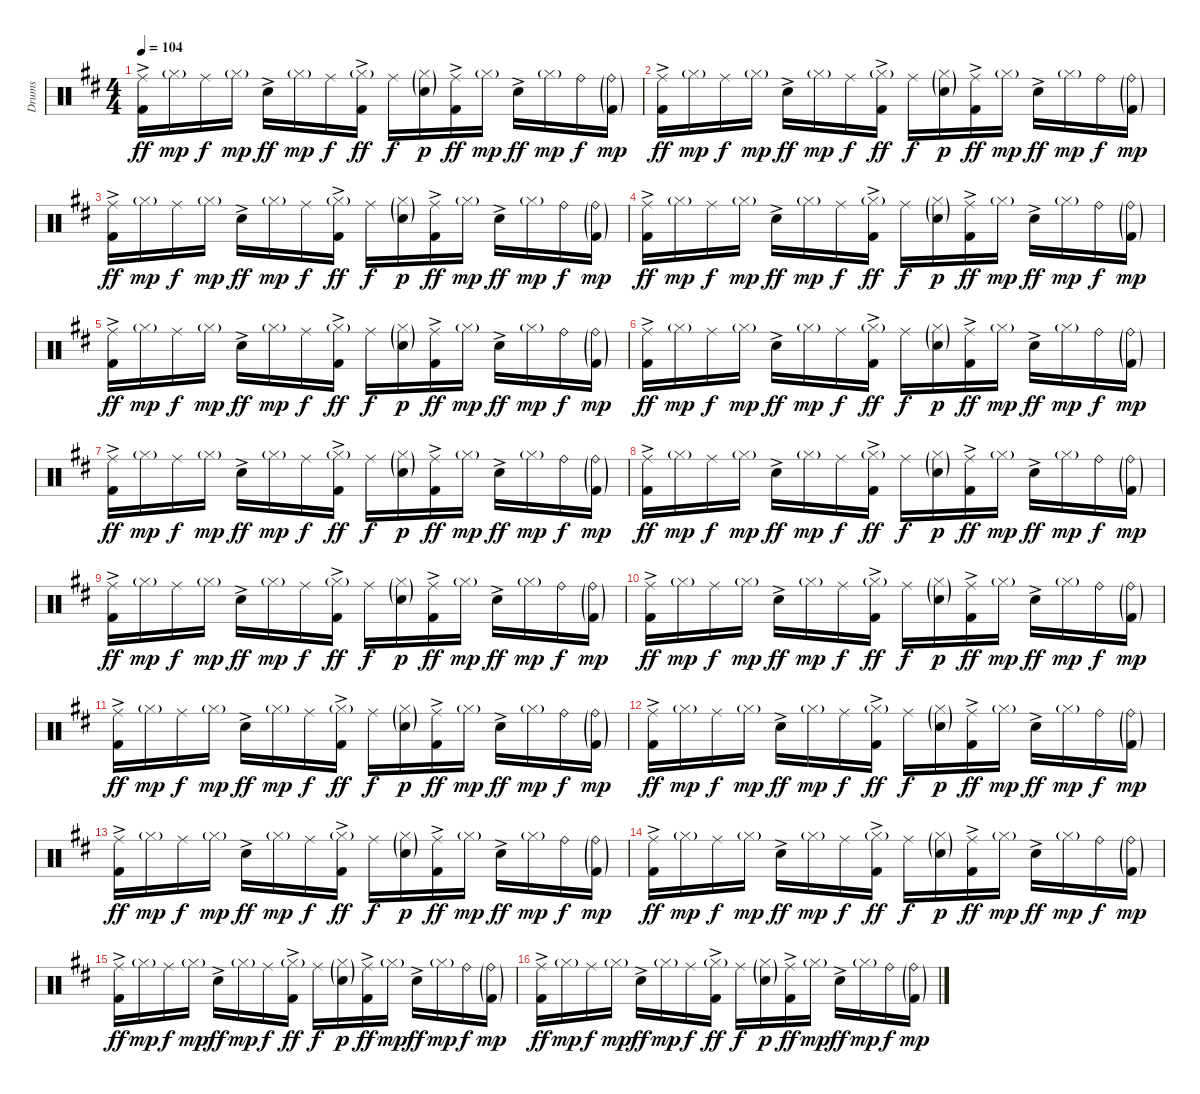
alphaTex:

\track ("Drums" "Drums") {instrument percussion}
\staff {score}
\articulation defaults
\ts (4 4)
\tempo 104
\clef neutral
\ks d
("Ride (middle)" "Kick (hit) 2"{ac}).16{dy ff} "Hi-Hat (closed)"{g}.16{dy mp} "Ride (middle)".16{dy f} "Hi-Hat (closed)"{g}.16{dy mp} "Snare (hit) 2"{ac}.16{dy ff} "Hi-Hat (closed)"{g}.16{dy mp} "Ride (middle)".16{dy f} ("Hi-Hat (closed)"{g} "Kick (hit) 2"{ac}).16{dy ff} "Ride (middle)".16{dy f} ("Hi-Hat (closed)"{g} "Snare (hit) 2"{g}).16{dy p} ("Ride (middle)" "Kick (hit) 2"{ac}).16{dy ff} "Hi-Hat (closed)"{g}.16{dy mp} "Snare (hit) 2"{ac}.16{dy ff} "Hi-Hat (closed)"{g}.16{dy mp} "Ride (bell)".16{dy f} ("Ride (bell)"{g} "Kick (hit) 2"{g}).16{dy mp} |
("Ride (middle)" "Kick (hit) 2"{ac}).16{dy ff} "Hi-Hat (closed)"{g}.16{dy mp} "Ride (middle)".16{dy f} "Hi-Hat (closed)"{g}.16{dy mp} "Snare (hit) 2"{ac}.16{dy ff} "Hi-Hat (closed)"{g}.16{dy mp} "Ride (middle)".16{dy f} ("Hi-Hat (closed)"{g} "Kick (hit) 2"{ac}).16{dy ff} "Ride (middle)".16{dy f} ("Hi-Hat (closed)"{g} "Snare (hit) 2"{g}).16{dy p} ("Ride (middle)" "Kick (hit) 2"{ac}).16{dy ff} "Hi-Hat (closed)"{g}.16{dy mp} "Snare (hit) 2"{ac}.16{dy ff} "Hi-Hat (closed)"{g}.16{dy mp} "Ride (bell)".16{dy f} ("Ride (bell)"{g} "Kick (hit) 2"{g}).16{dy mp} |
("Ride (middle)" "Kick (hit) 2"{ac}).16{dy ff} "Hi-Hat (closed)"{g}.16{dy mp} "Ride (middle)".16{dy f} "Hi-Hat (closed)"{g}.16{dy mp} "Snare (hit) 2"{ac}.16{dy ff} "Hi-Hat (closed)"{g}.16{dy mp} "Ride (middle)".16{dy f} ("Hi-Hat (closed)"{g} "Kick (hit) 2"{ac}).16{dy ff} "Ride (middle)".16{dy f} ("Hi-Hat (closed)"{g} "Snare (hit) 2"{g}).16{dy p} ("Ride (middle)" "Kick (hit) 2"{ac}).16{dy ff} "Hi-Hat (closed)"{g}.16{dy mp} "Snare (hit) 2"{ac}.16{dy ff} "Hi-Hat (closed)"{g}.16{dy mp} "Ride (bell)".16{dy f} ("Ride (bell)"{g} "Kick (hit) 2"{g}).16{dy mp} |
("Ride (middle)" "Kick (hit) 2"{ac}).16{dy ff} "Hi-Hat (closed)"{g}.16{dy mp} "Ride (middle)".16{dy f} "Hi-Hat (closed)"{g}.16{dy mp} "Snare (hit) 2"{ac}.16{dy ff} "Hi-Hat (closed)"{g}.16{dy mp} "Ride (middle)".16{dy f} ("Hi-Hat (closed)"{g} "Kick (hit) 2"{ac}).16{dy ff} "Ride (middle)".16{dy f} ("Hi-Hat (closed)"{g} "Snare (hit) 2"{g}).16{dy p} ("Ride (middle)" "Kick (hit) 2"{ac}).16{dy ff} "Hi-Hat (closed)"{g}.16{dy mp} "Snare (hit) 2"{ac}.16{dy ff} "Hi-Hat (closed)"{g}.16{dy mp} "Ride (bell)".16{dy f} ("Ride (bell)"{g} "Kick (hit) 2"{g}).16{dy mp} |
("Ride (middle)" "Kick (hit) 2"{ac}).16{dy ff} "Hi-Hat (closed)"{g}.16{dy mp} "Ride (middle)".16{dy f} "Hi-Hat (closed)"{g}.16{dy mp} "Snare (hit) 2"{ac}.16{dy ff} "Hi-Hat (closed)"{g}.16{dy mp} "Ride (middle)".16{dy f} ("Hi-Hat (closed)"{g} "Kick (hit) 2"{ac}).16{dy ff} "Ride (middle)".16{dy f} ("Hi-Hat (closed)"{g} "Snare (hit) 2"{g}).16{dy p} ("Ride (middle)" "Kick (hit) 2"{ac}).16{dy ff} "Hi-Hat (closed)"{g}.16{dy mp} "Snare (hit) 2"{ac}.16{dy ff} "Hi-Hat (closed)"{g}.16{dy mp} "Ride (bell)".16{dy f} ("Ride (bell)"{g} "Kick (hit) 2"{g}).16{dy mp} |
("Ride (middle)" "Kick (hit) 2"{ac}).16{dy ff} "Hi-Hat (closed)"{g}.16{dy mp} "Ride (middle)".16{dy f} "Hi-Hat (closed)"{g}.16{dy mp} "Snare (hit) 2"{ac}.16{dy ff} "Hi-Hat (closed)"{g}.16{dy mp} "Ride (middle)".16{dy f} ("Hi-Hat (closed)"{g} "Kick (hit) 2"{ac}).16{dy ff} "Ride (middle)".16{dy f} ("Hi-Hat (closed)"{g} "Snare (hit) 2"{g}).16{dy p} ("Ride (middle)" "Kick (hit) 2"{ac}).16{dy ff} "Hi-Hat (closed)"{g}.16{dy mp} "Snare (hit) 2"{ac}.16{dy ff} "Hi-Hat (closed)"{g}.16{dy mp} "Ride (bell)".16{dy f} ("Ride (bell)"{g} "Kick (hit) 2"{g}).16{dy mp} |
("Ride (middle)" "Kick (hit) 2"{ac}).16{dy ff} "Hi-Hat (closed)"{g}.16{dy mp} "Ride (middle)".16{dy f} "Hi-Hat (closed)"{g}.16{dy mp} "Snare (hit) 2"{ac}.16{dy ff} "Hi-Hat (closed)"{g}.16{dy mp} "Ride (middle)".16{dy f} ("Hi-Hat (closed)"{g} "Kick (hit) 2"{ac}).16{dy ff} "Ride (middle)".16{dy f} ("Hi-Hat (closed)"{g} "Snare (hit) 2"{g}).16{dy p} ("Ride (middle)" "Kick (hit) 2"{ac}).16{dy ff} "Hi-Hat (closed)"{g}.16{dy mp} "Snare (hit) 2"{ac}.16{dy ff} "Hi-Hat (closed)"{g}.16{dy mp} "Ride (bell)".16{dy f} ("Ride (bell)"{g} "Kick (hit) 2"{g}).16{dy mp} |
("Ride (middle)" "Kick (hit) 2"{ac}).16{dy ff} "Hi-Hat (closed)"{g}.16{dy mp} "Ride (middle)".16{dy f} "Hi-Hat (closed)"{g}.16{dy mp} "Snare (hit) 2"{ac}.16{dy ff} "Hi-Hat (closed)"{g}.16{dy mp} "Ride (middle)".16{dy f} ("Hi-Hat (closed)"{g} "Kick (hit) 2"{ac}).16{dy ff} "Ride (middle)".16{dy f} ("Hi-Hat (closed)"{g} "Snare (hit) 2"{g}).16{dy p} ("Ride (middle)" "Kick (hit) 2"{ac}).16{dy ff} "Hi-Hat (closed)"{g}.16{dy mp} "Snare (hit) 2"{ac}.16{dy ff} "Hi-Hat (closed)"{g}.16{dy mp} "Ride (bell)".16{dy f} ("Ride (bell)"{g} "Kick (hit) 2"{g}).16{dy mp} |
("Ride (middle)" "Kick (hit) 2"{ac}).16{dy ff} "Hi-Hat (closed)"{g}.16{dy mp} "Ride (middle)".16{dy f} "Hi-Hat (closed)"{g}.16{dy mp} "Snare (hit) 2"{ac}.16{dy ff} "Hi-Hat (closed)"{g}.16{dy mp} "Ride (middle)".16{dy f} ("Hi-Hat (closed)"{g} "Kick (hit) 2"{ac}).16{dy ff} "Ride (middle)".16{dy f} ("Hi-Hat (closed)"{g} "Snare (hit) 2"{g}).16{dy p} ("Ride (middle)" "Kick (hit) 2"{ac}).16{dy ff} "Hi-Hat (closed)"{g}.16{dy mp} "Snare (hit) 2"{ac}.16{dy ff} "Hi-Hat (closed)"{g}.16{dy mp} "Ride (bell)".16{dy f} ("Ride (bell)"{g} "Kick (hit) 2"{g}).16{dy mp} |
("Ride (middle)" "Kick (hit) 2"{ac}).16{dy ff} "Hi-Hat (closed)"{g}.16{dy mp} "Ride (middle)".16{dy f} "Hi-Hat (closed)"{g}.16{dy mp} "Snare (hit) 2"{ac}.16{dy ff} "Hi-Hat (closed)"{g}.16{dy mp} "Ride (middle)".16{dy f} ("Hi-Hat (closed)"{g} "Kick (hit) 2"{ac}).16{dy ff} "Ride (middle)".16{dy f} ("Hi-Hat (closed)"{g} "Snare (hit) 2"{g}).16{dy p} ("Ride (middle)" "Kick (hit) 2"{ac}).16{dy ff} "Hi-Hat (closed)"{g}.16{dy mp} "Snare (hit) 2"{ac}.16{dy ff} "Hi-Hat (closed)"{g}.16{dy mp} "Ride (bell)".16{dy f} ("Ride (bell)"{g} "Kick (hit) 2"{g}).16{dy mp} |
("Ride (middle)" "Kick (hit) 2"{ac}).16{dy ff} "Hi-Hat (closed)"{g}.16{dy mp} "Ride (middle)".16{dy f} "Hi-Hat (closed)"{g}.16{dy mp} "Snare (hit) 2"{ac}.16{dy ff} "Hi-Hat (closed)"{g}.16{dy mp} "Ride (middle)".16{dy f} ("Hi-Hat (closed)"{g} "Kick (hit) 2"{ac}).16{dy ff} "Ride (middle)".16{dy f} ("Hi-Hat (closed)"{g} "Snare (hit) 2"{g}).16{dy p} ("Ride (middle)" "Kick (hit) 2"{ac}).16{dy ff} "Hi-Hat (closed)"{g}.16{dy mp} "Snare (hit) 2"{ac}.16{dy ff} "Hi-Hat (closed)"{g}.16{dy mp} "Ride (bell)".16{dy f} ("Ride (bell)"{g} "Kick (hit) 2"{g}).16{dy mp} |
("Ride (middle)" "Kick (hit) 2"{ac}).16{dy ff} "Hi-Hat (closed)"{g}.16{dy mp} "Ride (middle)".16{dy f} "Hi-Hat (closed)"{g}.16{dy mp} "Snare (hit) 2"{ac}.16{dy ff} "Hi-Hat (closed)"{g}.16{dy mp} "Ride (middle)".16{dy f} ("Hi-Hat (closed)"{g} "Kick (hit) 2"{ac}).16{dy ff} "Ride (middle)".16{dy f} ("Hi-Hat (closed)"{g} "Snare (hit) 2"{g}).16{dy p} ("Ride (middle)" "Kick (hit) 2"{ac}).16{dy ff} "Hi-Hat (closed)"{g}.16{dy mp} "Snare (hit) 2"{ac}.16{dy ff} "Hi-Hat (closed)"{g}.16{dy mp} "Ride (bell)".16{dy f} ("Ride (bell)"{g} "Kick (hit) 2"{g}).16{dy mp} |
("Ride (middle)" "Kick (hit) 2"{ac}).16{dy ff} "Hi-Hat (closed)"{g}.16{dy mp} "Ride (middle)".16{dy f} "Hi-Hat (closed)"{g}.16{dy mp} "Snare (hit) 2"{ac}.16{dy ff} "Hi-Hat (closed)"{g}.16{dy mp} "Ride (middle)".16{dy f} ("Hi-Hat (closed)"{g} "Kick (hit) 2"{ac}).16{dy ff} "Ride (middle)".16{dy f} ("Hi-Hat (closed)"{g} "Snare (hit) 2"{g}).16{dy p} ("Ride (middle)" "Kick (hit) 2"{ac}).16{dy ff} "Hi-Hat (closed)"{g}.16{dy mp} "Snare (hit) 2"{ac}.16{dy ff} "Hi-Hat (closed)"{g}.16{dy mp} "Ride (bell)".16{dy f} ("Ride (bell)"{g} "Kick (hit) 2"{g}).16{dy mp} |
("Ride (middle)" "Kick (hit) 2"{ac}).16{dy ff} "Hi-Hat (closed)"{g}.16{dy mp} "Ride (middle)".16{dy f} "Hi-Hat (closed)"{g}.16{dy mp} "Snare (hit) 2"{ac}.16{dy ff} "Hi-Hat (closed)"{g}.16{dy mp} "Ride (middle)".16{dy f} ("Hi-Hat (closed)"{g} "Kick (hit) 2"{ac}).16{dy ff} "Ride (middle)".16{dy f} ("Hi-Hat (closed)"{g} "Snare (hit) 2"{g}).16{dy p} ("Ride (middle)" "Kick (hit) 2"{ac}).16{dy ff} "Hi-Hat (closed)"{g}.16{dy mp} "Snare (hit) 2"{ac}.16{dy ff} "Hi-Hat (closed)"{g}.16{dy mp} "Ride (bell)".16{dy f} ("Ride (bell)"{g} "Kick (hit) 2"{g}).16{dy mp} |
("Ride (middle)" "Kick (hit) 2"{ac}).16{dy ff} "Hi-Hat (closed)"{g}.16{dy mp} "Ride (middle)".16{dy f} "Hi-Hat (closed)"{g}.16{dy mp} "Snare (hit) 2"{ac}.16{dy ff} "Hi-Hat (closed)"{g}.16{dy mp} "Ride (middle)".16{dy f} ("Hi-Hat (closed)"{g} "Kick (hit) 2"{ac}).16{dy ff} "Ride (middle)".16{dy f} ("Hi-Hat (closed)"{g} "Snare (hit) 2"{g}).16{dy p} ("Ride (middle)" "Kick (hit) 2"{ac}).16{dy ff} "Hi-Hat (closed)"{g}.16{dy mp} "Snare (hit) 2"{ac}.16{dy ff} "Hi-Hat (closed)"{g}.16{dy mp} "Ride (bell)".16{dy f} ("Ride (bell)"{g} "Kick (hit) 2"{g}).16{dy mp} |
("Ride (middle)" "Kick (hit) 2"{ac}).16{dy ff} "Hi-Hat (closed)"{g}.16{dy mp} "Ride (middle)".16{dy f} "Hi-Hat (closed)"{g}.16{dy mp} "Snare (hit) 2"{ac}.16{dy ff} "Hi-Hat (closed)"{g}.16{dy mp} "Ride (middle)".16{dy f} ("Hi-Hat (closed)"{g} "Kick (hit) 2"{ac}).16{dy ff} "Ride (middle)".16{dy f} ("Hi-Hat (closed)"{g} "Snare (hit) 2"{g}).16{dy p} ("Ride (middle)" "Kick (hit) 2"{ac}).16{dy ff} "Hi-Hat (closed)"{g}.16{dy mp} "Snare (hit) 2"{ac}.16{dy ff} "Hi-Hat (closed)"{g}.16{dy mp} "Ride (bell)".16{dy f} ("Ride (bell)"{g} "Kick (hit) 2"{g}).16{dy mp}
